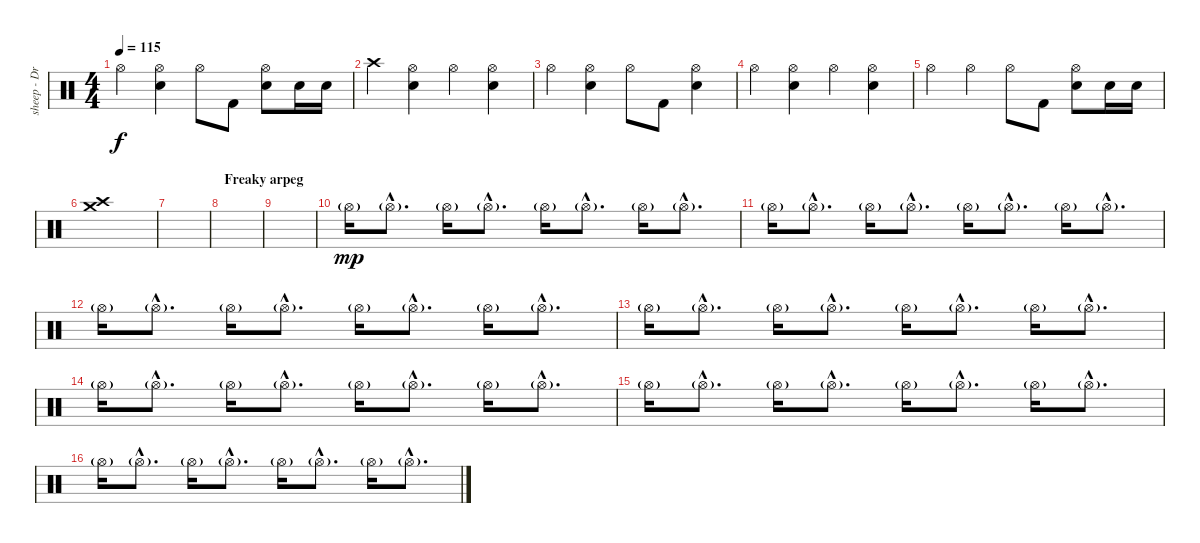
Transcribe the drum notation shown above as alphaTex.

\track ("sheep - Drum track (guide)" "sheep - Dr") {instrument percussion}
\staff {score}
\articulation defaults
\ts (4 4)
\tempo 115
\clef neutral
\ks c "Hi-Hat (open)".4{dy f}
("Hi-Hat (open)" "Electric Snare (hit)").4 "Hi-Hat (open)".8 "Kick (hit) 2".8 ("Hi-Hat (open)" "Electric Snare (hit)").8 "Electric Snare (hit)".16 "Electric Snare (hit)".16 |
"Crash high (hit)".4 ("Hi-Hat (open)" "Electric Snare (hit)").4 "Hi-Hat (open)".4 ("Hi-Hat (open)" "Electric Snare (hit)").4 |
"Hi-Hat (open)".4 ("Hi-Hat (open)" "Electric Snare (hit)").4 "Hi-Hat (open)".8 "Kick (hit) 2".8 ("Hi-Hat (open)" "Electric Snare (hit)").4 |
"Hi-Hat (open)".4 ("Hi-Hat (open)" "Electric Snare (hit)").4 "Hi-Hat (open)".4 ("Hi-Hat (open)" "Electric Snare (hit)").4 |
"Hi-Hat (open)".4 "Hi-Hat (open)".4 "Hi-Hat (open)".8 "Kick (hit) 2".8 ("Hi-Hat (open)" "Electric Snare (hit)").8 "Electric Snare (hit)".16 "Electric Snare (hit)".16 |
("Crash high (hit)" "Crash medium (hit)").1 |
|
\section ("" "Freaky arpeg")
|
|
"Hi-Hat (open)"{g}.16{dy mp} "Hi-Hat (open)"{g hac}.8{d} "Hi-Hat (open)"{g}.16 "Hi-Hat (open)"{g hac}.8{d} "Hi-Hat (open)"{g}.16 "Hi-Hat (open)"{g hac}.8{d} "Hi-Hat (open)"{g}.16 "Hi-Hat (open)"{g hac}.8{d} |
"Hi-Hat (open)"{g}.16 "Hi-Hat (open)"{g hac}.8{d} "Hi-Hat (open)"{g}.16 "Hi-Hat (open)"{g hac}.8{d} "Hi-Hat (open)"{g}.16 "Hi-Hat (open)"{g hac}.8{d} "Hi-Hat (open)"{g}.16 "Hi-Hat (open)"{g hac}.8{d} |
"Hi-Hat (open)"{g}.16 "Hi-Hat (open)"{g hac}.8{d} "Hi-Hat (open)"{g}.16 "Hi-Hat (open)"{g hac}.8{d} "Hi-Hat (open)"{g}.16 "Hi-Hat (open)"{g hac}.8{d} "Hi-Hat (open)"{g}.16 "Hi-Hat (open)"{g hac}.8{d} |
"Hi-Hat (open)"{g}.16 "Hi-Hat (open)"{g hac}.8{d} "Hi-Hat (open)"{g}.16 "Hi-Hat (open)"{g hac}.8{d} "Hi-Hat (open)"{g}.16 "Hi-Hat (open)"{g hac}.8{d} "Hi-Hat (open)"{g}.16 "Hi-Hat (open)"{g hac}.8{d} |
"Hi-Hat (open)"{g}.16 "Hi-Hat (open)"{g hac}.8{d} "Hi-Hat (open)"{g}.16 "Hi-Hat (open)"{g hac}.8{d} "Hi-Hat (open)"{g}.16 "Hi-Hat (open)"{g hac}.8{d} "Hi-Hat (open)"{g}.16 "Hi-Hat (open)"{g hac}.8{d} |
"Hi-Hat (open)"{g}.16 "Hi-Hat (open)"{g hac}.8{d} "Hi-Hat (open)"{g}.16 "Hi-Hat (open)"{g hac}.8{d} "Hi-Hat (open)"{g}.16 "Hi-Hat (open)"{g hac}.8{d} "Hi-Hat (open)"{g}.16 "Hi-Hat (open)"{g hac}.8{d} |
"Hi-Hat (open)"{g}.16 "Hi-Hat (open)"{g hac}.8{d} "Hi-Hat (open)"{g}.16 "Hi-Hat (open)"{g hac}.8{d} "Hi-Hat (open)"{g}.16 "Hi-Hat (open)"{g hac}.8{d} "Hi-Hat (open)"{g}.16 "Hi-Hat (open)"{g hac}.8{d}
